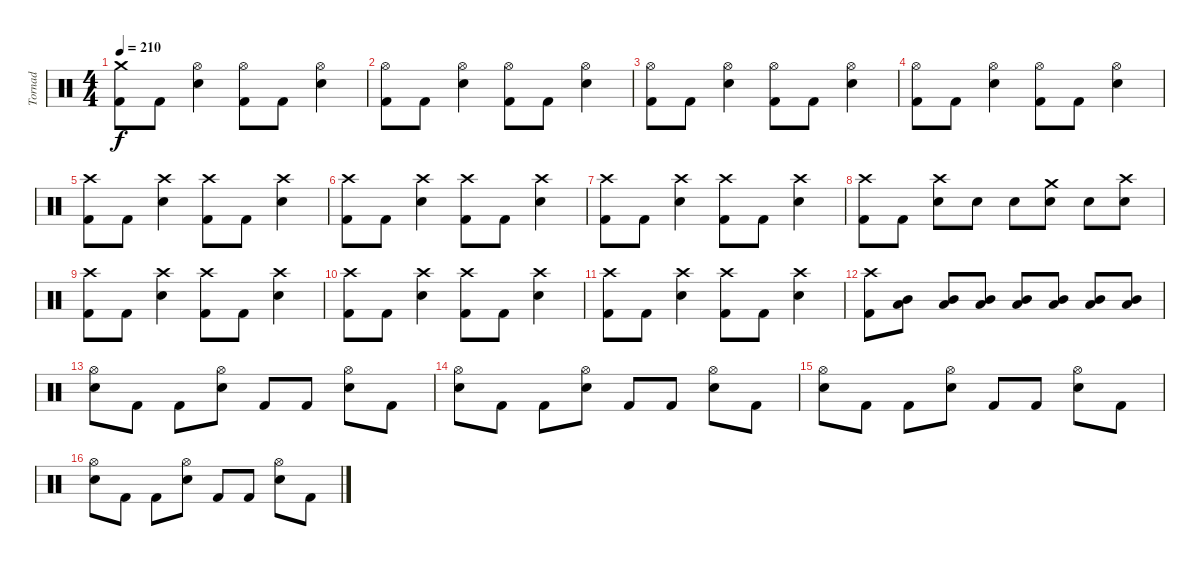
\track ("Tornad" "Tornad") {instrument percussion}
\staff {score}
\articulation defaults
\ts (4 4)
\tempo 210
\clef neutral
\ks c
("Crash medium (hit)" "Kick (hit) 2").8{dy f} "Kick (hit) 2".8 ("Hi-Hat (open)" "Electric Snare (hit)").4 ("Hi-Hat (open)" "Kick (hit) 2").8 "Kick (hit) 2".8 ("Hi-Hat (open)" "Electric Snare (hit)").4 |
("Hi-Hat (open)" "Kick (hit) 2").8 "Kick (hit) 2".8 ("Hi-Hat (open)" "Electric Snare (hit)").4 ("Hi-Hat (open)" "Kick (hit) 2").8 "Kick (hit) 2".8 ("Hi-Hat (open)" "Electric Snare (hit)").4 |
("Hi-Hat (open)" "Kick (hit) 2").8 "Kick (hit) 2".8 ("Hi-Hat (open)" "Electric Snare (hit)").4 ("Hi-Hat (open)" "Kick (hit) 2").8 "Kick (hit) 2".8 ("Hi-Hat (open)" "Electric Snare (hit)").4 |
("Hi-Hat (open)" "Kick (hit) 2").8 "Kick (hit) 2".8 ("Hi-Hat (open)" "Electric Snare (hit)").4 ("Hi-Hat (open)" "Kick (hit) 2").8 "Kick (hit) 2".8 ("Hi-Hat (open)" "Electric Snare (hit)").4 |
("Crash high (hit)" "Kick (hit) 2").8 "Kick (hit) 2".8 ("Crash high (hit)" "Electric Snare (hit)").4 ("Crash high (hit)" "Kick (hit) 2").8 "Kick (hit) 2".8 ("Crash high (hit)" "Electric Snare (hit)").4 |
("Crash high (hit)" "Kick (hit) 2").8 "Kick (hit) 2".8 ("Crash high (hit)" "Electric Snare (hit)").4 ("Crash high (hit)" "Kick (hit) 2").8 "Kick (hit) 2".8 ("Crash high (hit)" "Electric Snare (hit)").4 |
("Crash high (hit)" "Kick (hit) 2").8 "Kick (hit) 2".8 ("Crash high (hit)" "Electric Snare (hit)").4 ("Crash high (hit)" "Kick (hit) 2").8 "Kick (hit) 2".8 ("Crash high (hit)" "Electric Snare (hit)").4 |
("Crash high (hit)" "Kick (hit) 2").8 "Kick (hit) 2".8 ("Crash high (hit)" "Electric Snare (hit)").8 "Electric Snare (hit)".8 "Electric Snare (hit)".8 ("Crash medium (hit)" "Electric Snare (hit)").8 "Electric Snare (hit)".8 ("Crash high (hit)" "Electric Snare (hit)").8 |
("Crash high (hit)" "Kick (hit) 2").8 "Kick (hit) 2".8 ("Crash high (hit)" "Electric Snare (hit)").4 ("Crash high (hit)" "Kick (hit) 2").8 "Kick (hit) 2".8 ("Crash high (hit)" "Electric Snare (hit)").4 |
("Crash high (hit)" "Kick (hit) 2").8 "Kick (hit) 2".8 ("Crash high (hit)" "Electric Snare (hit)").4 ("Crash high (hit)" "Kick (hit) 2").8 "Kick (hit) 2".8 ("Crash high (hit)" "Electric Snare (hit)").4 |
("Crash high (hit)" "Kick (hit) 2").8 "Kick (hit) 2".8 ("Crash high (hit)" "Electric Snare (hit)").4 ("Crash high (hit)" "Kick (hit) 2").8 "Kick (hit) 2".8 ("Crash high (hit)" "Electric Snare (hit)").4 |
("Crash high (hit)" "Kick (hit) 2").8 ("Mid Tom (hit)" "Low Tom (hit)").8 ("Mid Tom (hit)" "Low Tom (hit)").8 ("Mid Tom (hit)" "Low Tom (hit)").8 ("Mid Tom (hit)" "Low Tom (hit)").8 ("Mid Tom (hit)" "Low Tom (hit)").8 ("Mid Tom (hit)" "Low Tom (hit)").8 ("Mid Tom (hit)" "Low Tom (hit)").8 |
("Hi-Hat (open)" "Electric Snare (hit)").8 "Kick (hit) 2".8 "Kick (hit) 2".8 ("Hi-Hat (open)" "Electric Snare (hit)").8 "Kick (hit) 2".8 "Kick (hit) 2".8 ("Hi-Hat (open)" "Electric Snare (hit)").8 "Kick (hit) 2".8 |
("Hi-Hat (open)" "Electric Snare (hit)").8 "Kick (hit) 2".8 "Kick (hit) 2".8 ("Hi-Hat (open)" "Electric Snare (hit)").8 "Kick (hit) 2".8 "Kick (hit) 2".8 ("Hi-Hat (open)" "Electric Snare (hit)").8 "Kick (hit) 2".8 |
("Hi-Hat (open)" "Electric Snare (hit)").8 "Kick (hit) 2".8 "Kick (hit) 2".8 ("Hi-Hat (open)" "Electric Snare (hit)").8 "Kick (hit) 2".8 "Kick (hit) 2".8 ("Hi-Hat (open)" "Electric Snare (hit)").8 "Kick (hit) 2".8 |
("Hi-Hat (open)" "Electric Snare (hit)").8 "Kick (hit) 2".8 "Kick (hit) 2".8 ("Hi-Hat (open)" "Electric Snare (hit)").8 "Kick (hit) 2".8 "Kick (hit) 2".8 ("Hi-Hat (open)" "Electric Snare (hit)").8 "Kick (hit) 2".8
